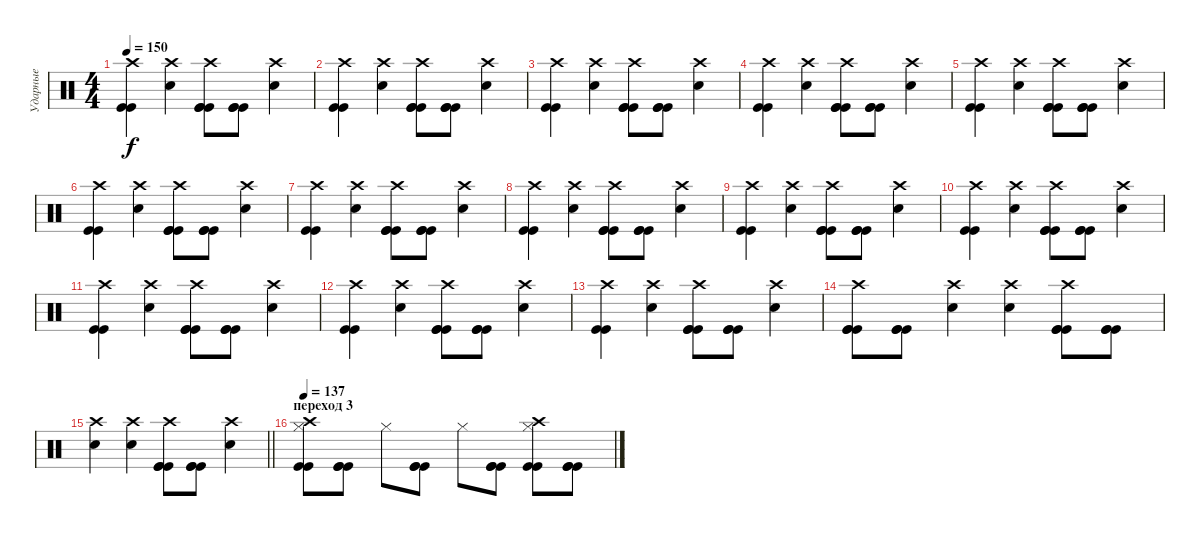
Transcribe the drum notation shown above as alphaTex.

\track ("Ударные" "Ударные") {instrument percussion}
\staff {score}
\articulation defaults
\ts (4 4)
\tempo 150
\clef neutral
\ks c
("Crash high (hit)" "Kick (hit)" "Kick (hit)").4{dy f} ("Snare (hit) 2" "Crash high (hit)").4 ("Kick (hit)" "Kick (hit)" "Kick (hit)" "Crash high (hit)").8 ("Kick (hit)" "Kick (hit)" "Kick (hit)").8 ("Snare (hit) 2" "Crash high (hit)").4 |
("Crash high (hit)" "Kick (hit)" "Kick (hit)").4 ("Snare (hit) 2" "Crash high (hit)").4 ("Kick (hit)" "Kick (hit)" "Kick (hit)" "Crash high (hit)").8 ("Kick (hit)" "Kick (hit)" "Kick (hit)").8 ("Snare (hit) 2" "Crash high (hit)").4 |
("Crash high (hit)" "Kick (hit)" "Kick (hit)").4 ("Snare (hit) 2" "Crash high (hit)").4 ("Kick (hit)" "Kick (hit)" "Kick (hit)" "Crash high (hit)").8 ("Kick (hit)" "Kick (hit)" "Kick (hit)").8 ("Snare (hit) 2" "Crash high (hit)").4 |
("Crash high (hit)" "Kick (hit)" "Kick (hit)").4 ("Snare (hit) 2" "Crash high (hit)").4 ("Kick (hit)" "Kick (hit)" "Kick (hit)" "Crash high (hit)").8 ("Kick (hit)" "Kick (hit)" "Kick (hit)").8 ("Snare (hit) 2" "Crash high (hit)").4 |
("Crash high (hit)" "Kick (hit)" "Kick (hit)").4 ("Snare (hit) 2" "Crash high (hit)").4 ("Kick (hit)" "Kick (hit)" "Kick (hit)" "Crash high (hit)").8 ("Kick (hit)" "Kick (hit)" "Kick (hit)").8 ("Snare (hit) 2" "Crash high (hit)").4 |
("Crash high (hit)" "Kick (hit)" "Kick (hit)").4 ("Snare (hit) 2" "Crash high (hit)").4 ("Kick (hit)" "Kick (hit)" "Kick (hit)" "Crash high (hit)").8 ("Kick (hit)" "Kick (hit)" "Kick (hit)").8 ("Snare (hit) 2" "Crash high (hit)").4 |
("Crash high (hit)" "Kick (hit)" "Kick (hit)").4 ("Snare (hit) 2" "Crash high (hit)").4 ("Kick (hit)" "Kick (hit)" "Kick (hit)" "Crash high (hit)").8 ("Kick (hit)" "Kick (hit)" "Kick (hit)").8 ("Snare (hit) 2" "Crash high (hit)").4 |
("Crash high (hit)" "Kick (hit)" "Kick (hit)").4 ("Snare (hit) 2" "Crash high (hit)").4 ("Kick (hit)" "Kick (hit)" "Kick (hit)" "Crash high (hit)").8 ("Kick (hit)" "Kick (hit)" "Kick (hit)").8 ("Snare (hit) 2" "Crash high (hit)").4 |
("Crash high (hit)" "Kick (hit)" "Kick (hit)").4 ("Snare (hit) 2" "Crash high (hit)").4 ("Kick (hit)" "Kick (hit)" "Kick (hit)" "Crash high (hit)").8 ("Kick (hit)" "Kick (hit)" "Kick (hit)").8 ("Snare (hit) 2" "Crash high (hit)").4 |
("Crash high (hit)" "Kick (hit)" "Kick (hit)").4 ("Snare (hit) 2" "Crash high (hit)").4 ("Kick (hit)" "Kick (hit)" "Kick (hit)" "Crash high (hit)").8 ("Kick (hit)" "Kick (hit)" "Kick (hit)").8 ("Snare (hit) 2" "Crash high (hit)").4 |
("Crash high (hit)" "Kick (hit)" "Kick (hit)").4 ("Snare (hit) 2" "Crash high (hit)").4 ("Kick (hit)" "Kick (hit)" "Kick (hit)" "Crash high (hit)").8 ("Kick (hit)" "Kick (hit)" "Kick (hit)").8 ("Snare (hit) 2" "Crash high (hit)").4 |
("Crash high (hit)" "Kick (hit)" "Kick (hit)").4 ("Snare (hit) 2" "Crash high (hit)").4 ("Kick (hit)" "Kick (hit)" "Kick (hit)" "Crash high (hit)").8 ("Kick (hit)" "Kick (hit)" "Kick (hit)").8 ("Snare (hit) 2" "Crash high (hit)").4 |
("Crash high (hit)" "Kick (hit)" "Kick (hit)").4 ("Snare (hit) 2" "Crash high (hit)").4 ("Kick (hit)" "Kick (hit)" "Kick (hit)" "Crash high (hit)").8 ("Kick (hit)" "Kick (hit)" "Kick (hit)").8 ("Snare (hit) 2" "Crash high (hit)").4 |
("Kick (hit)" "Kick (hit)" "Kick (hit)" "Crash high (hit)").8 ("Kick (hit)" "Kick (hit)" "Kick (hit)").8 ("Snare (hit) 2" "Crash high (hit)").4 ("Snare (hit) 2" "Crash high (hit)").4 ("Kick (hit)" "Kick (hit)" "Kick (hit)" "Crash high (hit)").8 ("Kick (hit)" "Kick (hit)" "Kick (hit)").8 |
\barLineRight lightlight
("Snare (hit) 2" "Crash high (hit)").4 ("Snare (hit) 2" "Crash high (hit)").4 ("Kick (hit)" "Kick (hit)" "Kick (hit)" "Crash high (hit)").8 ("Kick (hit)" "Kick (hit)" "Kick (hit)").8 ("Snare (hit) 2" "Crash high (hit)").4 |
\section ("" "переход 3")
\tempo 137
("Kick (hit)" "Kick (hit)" "Hi-Hat (closed)" "Crash high (hit)").8 ("Kick (hit)" "Kick (hit)" "Kick (hit)").8 "Hi-Hat (closed)".8 ("Kick (hit)" "Kick (hit)" "Kick (hit)").8 "Hi-Hat (closed)".8 ("Kick (hit)" "Kick (hit)" "Kick (hit)").8 ("Kick (hit)" "Kick (hit)" "Hi-Hat (closed)" "Crash high (hit)").8 ("Kick (hit)" "Kick (hit)" "Kick (hit)").8
